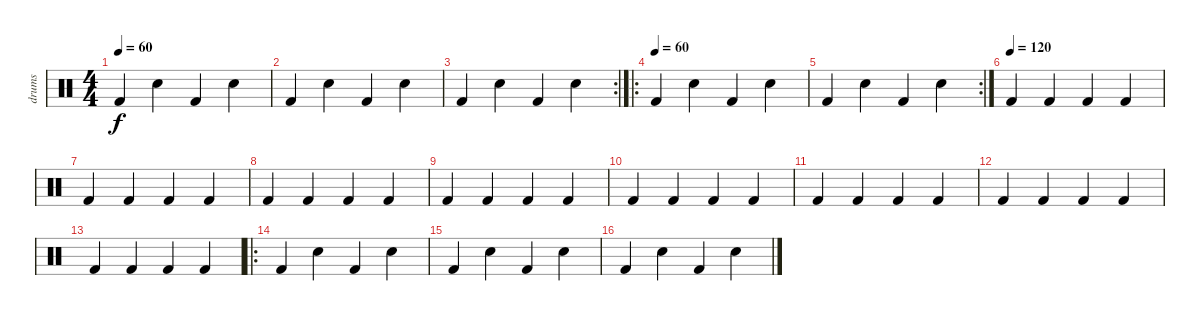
\track ("drums" "drums") {instrument percussion}
\staff {score}
\articulation defaults
\ts (4 4)
\tempo 60
\clef neutral
\ks c "Kick (hit) 2".4{dy f} "Snare (hit) 2".4 "Kick (hit) 2".4 "Snare (hit) 2".4
|
"Kick (hit) 2".4 "Snare (hit) 2".4 "Kick (hit) 2".4 "Snare (hit) 2".4 |
\rc 2 "Kick (hit) 2".4 "Snare (hit) 2".4 "Kick (hit) 2".4 "Snare (hit) 2".4
|
\ro
\tempo (60)
"Kick (hit) 2".4 "Snare (hit) 2".4 "Kick (hit) 2".4 "Snare (hit) 2".4 |
\rc 2 "Kick (hit) 2".4 "Snare (hit) 2".4 "Kick (hit) 2".4 "Snare (hit) 2".4
|
\tempo (120)
"Kick (hit) 2".4 "Kick (hit) 2".4 "Kick (hit) 2".4 "Kick (hit) 2".4 |
"Kick (hit) 2".4 "Kick (hit) 2".4 "Kick (hit) 2".4 "Kick (hit) 2".4 |
"Kick (hit) 2".4 "Kick (hit) 2".4 "Kick (hit) 2".4 "Kick (hit) 2".4 |
"Kick (hit) 2".4 "Kick (hit) 2".4 "Kick (hit) 2".4 "Kick (hit) 2".4 |
"Kick (hit) 2".4 "Kick (hit) 2".4 "Kick (hit) 2".4 "Kick (hit) 2".4 |
"Kick (hit) 2".4 "Kick (hit) 2".4 "Kick (hit) 2".4 "Kick (hit) 2".4 |
"Kick (hit) 2".4 "Kick (hit) 2".4 "Kick (hit) 2".4 "Kick (hit) 2".4 |
"Kick (hit) 2".4 "Kick (hit) 2".4 "Kick (hit) 2".4 "Kick (hit) 2".4 |
\ro "Kick (hit) 2".4 "Snare (hit) 2".4 "Kick (hit) 2".4 "Snare (hit) 2".4
|
"Kick (hit) 2".4 "Snare (hit) 2".4 "Kick (hit) 2".4 "Snare (hit) 2".4 |
"Kick (hit) 2".4 "Snare (hit) 2".4 "Kick (hit) 2".4 "Snare (hit) 2".4
